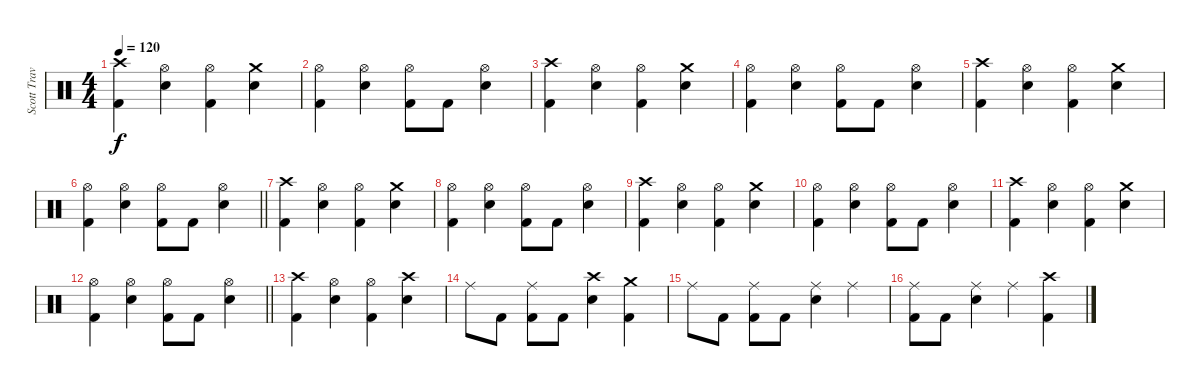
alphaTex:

\track ("Scott Travis" "Scott Trav") {instrument percussion}
\staff {score}
\articulation defaults
\ts (4 4)
\tempo 120
\clef neutral
\ks c
("Crash high (hit)" "Kick (hit) 2").4{dy f} ("Hi-Hat (open)" "Snare (hit) 2").4 ("Hi-Hat (open)" "Kick (hit) 2").4 ("Crash medium (hit)" "Snare (hit) 2").4 |
("Hi-Hat (open)" "Kick (hit) 2").4 ("Hi-Hat (open)" "Snare (hit) 2").4 ("Hi-Hat (open)" "Kick (hit) 2").8 "Kick (hit) 2".8 ("Hi-Hat (open)" "Snare (hit) 2").4 |
("Crash high (hit)" "Kick (hit) 2").4 ("Hi-Hat (open)" "Snare (hit) 2").4 ("Hi-Hat (open)" "Kick (hit) 2").4 ("Crash medium (hit)" "Snare (hit) 2").4 |
("Hi-Hat (open)" "Kick (hit) 2").4 ("Hi-Hat (open)" "Snare (hit) 2").4 ("Hi-Hat (open)" "Kick (hit) 2").8 "Kick (hit) 2".8 ("Hi-Hat (open)" "Snare (hit) 2").4 |
("Crash high (hit)" "Kick (hit) 2").4 ("Hi-Hat (open)" "Snare (hit) 2").4 ("Hi-Hat (open)" "Kick (hit) 2").4 ("Crash medium (hit)" "Snare (hit) 2").4 |
\barLineRight lightlight
("Hi-Hat (open)" "Kick (hit) 2").4 ("Hi-Hat (open)" "Snare (hit) 2").4 ("Hi-Hat (open)" "Kick (hit) 2").8 "Kick (hit) 2".8 ("Hi-Hat (open)" "Snare (hit) 2").4 |
("Crash high (hit)" "Kick (hit) 2").4 ("Hi-Hat (open)" "Snare (hit) 2").4 ("Hi-Hat (open)" "Kick (hit) 2").4 ("Crash medium (hit)" "Snare (hit) 2").4 |
("Hi-Hat (open)" "Kick (hit) 2").4 ("Hi-Hat (open)" "Snare (hit) 2").4 ("Hi-Hat (open)" "Kick (hit) 2").8 "Kick (hit) 2".8 ("Hi-Hat (open)" "Snare (hit) 2").4 |
("Crash high (hit)" "Kick (hit) 2").4 ("Hi-Hat (open)" "Snare (hit) 2").4 ("Hi-Hat (open)" "Kick (hit) 2").4 ("Crash medium (hit)" "Snare (hit) 2").4 |
("Hi-Hat (open)" "Kick (hit) 2").4 ("Hi-Hat (open)" "Snare (hit) 2").4 ("Hi-Hat (open)" "Kick (hit) 2").8 "Kick (hit) 2".8 ("Hi-Hat (open)" "Snare (hit) 2").4 |
("Crash high (hit)" "Kick (hit) 2").4 ("Hi-Hat (open)" "Snare (hit) 2").4 ("Hi-Hat (open)" "Kick (hit) 2").4 ("Crash medium (hit)" "Snare (hit) 2").4 |
\barLineRight lightlight
("Hi-Hat (open)" "Kick (hit) 2").4 ("Hi-Hat (open)" "Snare (hit) 2").4 ("Hi-Hat (open)" "Kick (hit) 2").8 "Kick (hit) 2".8 ("Hi-Hat (open)" "Snare (hit) 2").4 |
("Crash high (hit)" "Kick (hit) 2").4 ("Hi-Hat (open)" "Snare (hit) 2").4 ("Hi-Hat (open)" "Kick (hit) 2").4 ("Crash high (hit)" "Snare (hit) 2").4 |
"Ride (middle)".8 "Kick (hit) 2".8 ("Ride (middle)" "Kick (hit) 2").8 "Kick (hit) 2".8 ("Crash high (hit)" "Snare (hit) 2").4 ("Crash medium (hit)" "Kick (hit) 2").4 |
"Ride (middle)".8 "Kick (hit) 2".8 ("Ride (middle)" "Kick (hit) 2").8 "Kick (hit) 2".8 ("Ride (middle)" "Snare (hit) 2").4 "Ride (middle)".4 |
("Ride (middle)" "Kick (hit) 2").8 "Kick (hit) 2".8 ("Ride (middle)" "Snare (hit) 2").4 "Ride (middle)".4 ("Crash high (hit)" "Kick (hit) 2").4
